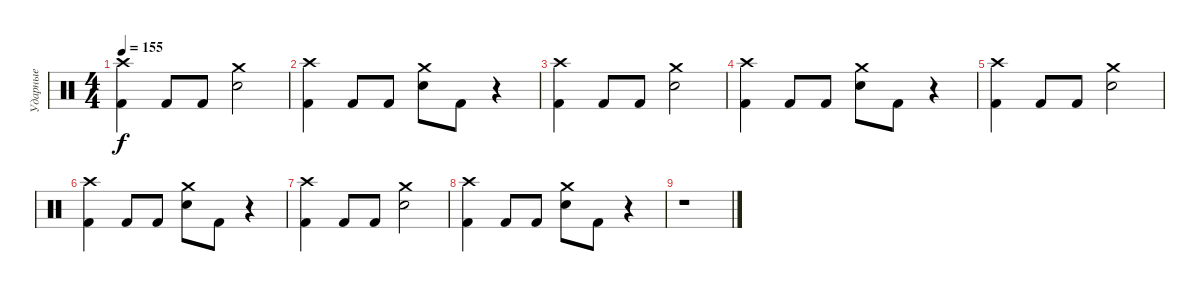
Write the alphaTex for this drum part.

\track ("Ударные" "Ударные") {instrument percussion}
\staff {score}
\articulation defaults
\ts (4 4)
\tempo 155
\clef neutral
\ks c
("Kick (hit) 2" "Crash high (hit)").4{dy f} "Kick (hit) 2".8 "Kick (hit) 2".8 ("Electric Snare (hit)" "Crash medium (hit)").2 |
("Kick (hit) 2" "Crash high (hit)").4 "Kick (hit) 2".8 "Kick (hit) 2".8 ("Electric Snare (hit)" "Crash medium (hit)").8 "Kick (hit) 2".8 r.4 |
("Kick (hit) 2" "Crash high (hit)").4 "Kick (hit) 2".8 "Kick (hit) 2".8 ("Electric Snare (hit)" "Crash medium (hit)").2 |
("Kick (hit) 2" "Crash high (hit)").4 "Kick (hit) 2".8 "Kick (hit) 2".8 ("Electric Snare (hit)" "Crash medium (hit)").8 "Kick (hit) 2".8 r.4 |
("Kick (hit) 2" "Crash high (hit)").4 "Kick (hit) 2".8 "Kick (hit) 2".8 ("Electric Snare (hit)" "Crash medium (hit)").2 |
("Kick (hit) 2" "Crash high (hit)").4 "Kick (hit) 2".8 "Kick (hit) 2".8 ("Electric Snare (hit)" "Crash medium (hit)").8 "Kick (hit) 2".8 r.4 |
("Kick (hit) 2" "Crash high (hit)").4 "Kick (hit) 2".8 "Kick (hit) 2".8 ("Electric Snare (hit)" "Crash medium (hit)").2 |
("Kick (hit) 2" "Crash high (hit)").4 "Kick (hit) 2".8 "Kick (hit) 2".8 ("Electric Snare (hit)" "Crash medium (hit)").8 "Kick (hit) 2".8 r.4 |
r.1
